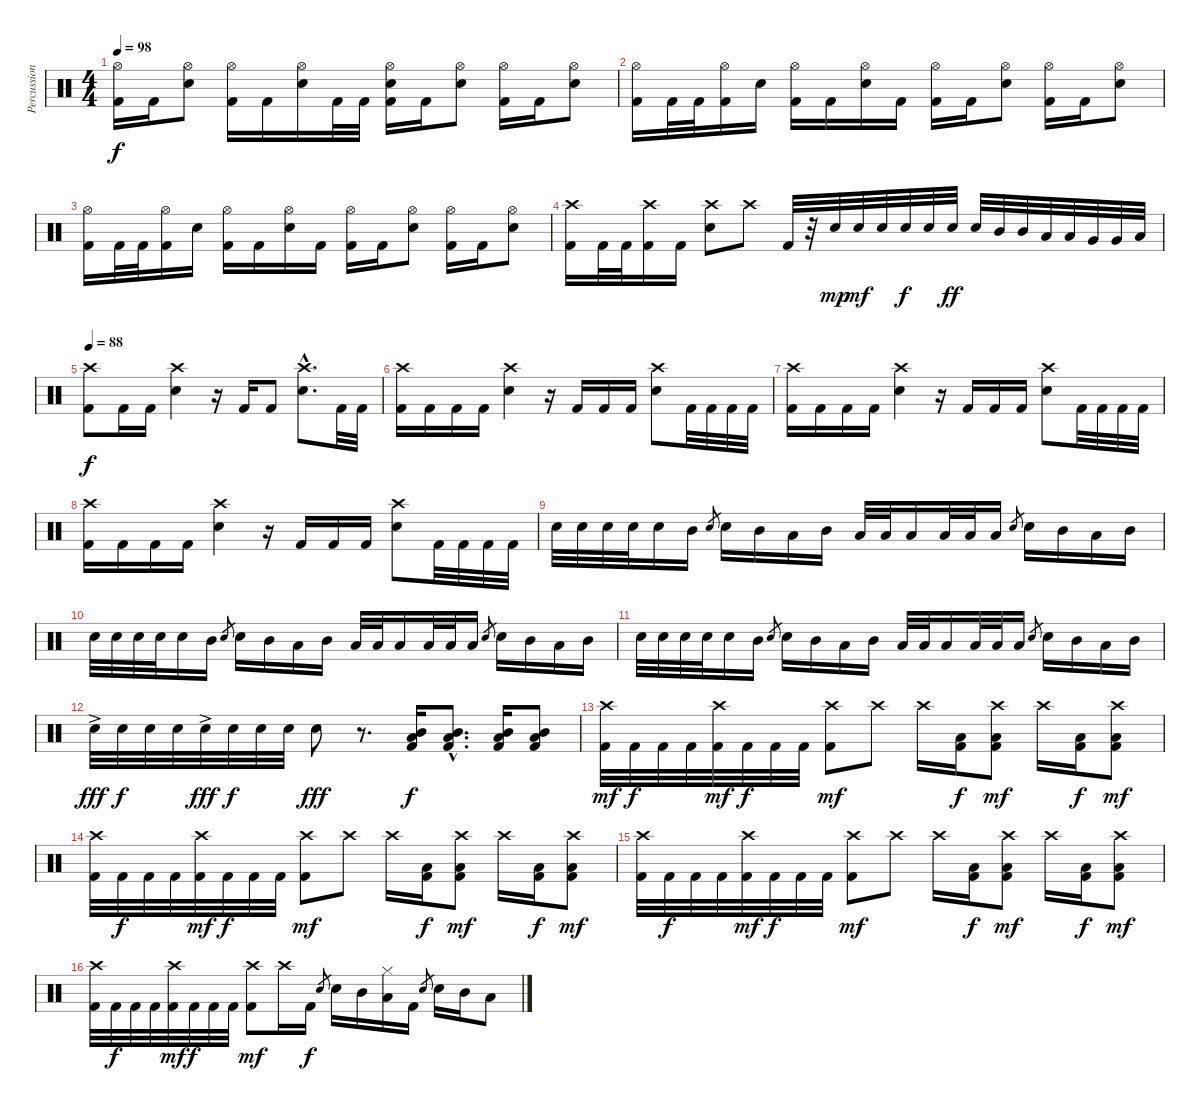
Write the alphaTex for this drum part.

\track ("Percussion" "Percussion") {instrument percussion}
\staff {score}
\articulation defaults
\ts (4 4)
\tempo 98
\clef neutral
\ks c
("Hi-Hat (open)" "Kick (hit) 2").16{dy f} "Kick (hit) 2".16 ("Hi-Hat (open)" "Electric Snare (hit)").8 ("Hi-Hat (open)" "Kick (hit) 2").16 "Kick (hit) 2".16 ("Hi-Hat (open)" "Electric Snare (hit)").16 "Kick (hit) 2".32 "Kick (hit) 2".32 ("Hi-Hat (open)" "Electric Snare (hit)" "Kick (hit) 2").16 "Kick (hit) 2".16 ("Hi-Hat (open)" "Electric Snare (hit)").8 ("Hi-Hat (open)" "Kick (hit) 2").16 "Kick (hit) 2".16 ("Hi-Hat (open)" "Electric Snare (hit)").8 |
("Hi-Hat (open)" "Kick (hit) 2").16 "Kick (hit) 2".32 "Kick (hit) 2".32 ("Hi-Hat (open)" "Kick (hit) 2").16 "Electric Snare (hit)".16 ("Hi-Hat (open)" "Kick (hit) 2").16 "Kick (hit) 2".16 ("Hi-Hat (open)" "Electric Snare (hit)").16 "Kick (hit) 2".16 ("Hi-Hat (open)" "Kick (hit) 2").16 "Kick (hit) 2".16 ("Hi-Hat (open)" "Electric Snare (hit)").8 ("Hi-Hat (open)" "Kick (hit) 2").16 "Kick (hit) 2".16 ("Hi-Hat (open)" "Electric Snare (hit)").8 |
("Hi-Hat (open)" "Kick (hit) 2").16 "Kick (hit) 2".32 "Kick (hit) 2".32 ("Hi-Hat (open)" "Kick (hit) 2").16 "Electric Snare (hit)".16 ("Hi-Hat (open)" "Kick (hit) 2").16 "Kick (hit) 2".16 ("Hi-Hat (open)" "Electric Snare (hit)").16 "Kick (hit) 2".16 ("Hi-Hat (open)" "Kick (hit) 2").16 "Kick (hit) 2".16 ("Hi-Hat (open)" "Electric Snare (hit)").8 ("Hi-Hat (open)" "Kick (hit) 2").16 "Kick (hit) 2".16 ("Hi-Hat (open)" "Electric Snare (hit)").8 |
("Crash high (hit)" "Kick (hit) 2").16 "Kick (hit) 2".32 "Kick (hit) 2".32 ("Crash high (hit)" "Kick (hit) 2").16 "Kick (hit) 2".16 ("Crash high (hit)" "Electric Snare (hit)").8 "Crash high (hit)".8 "Kick (hit) 2".32 r.32 "Electric Snare (hit)".32{dy mp} "Electric Snare (hit)".32{dy mf} "Electric Snare (hit)".32 "Electric Snare (hit)".32{dy f} "Electric Snare (hit)".32 "Electric Snare (hit)".32{dy ff} "Electric Snare (hit)".32 "Mid Tom (hit)".32 "Mid Tom (hit)".32 "Low Tom (hit)".32 "Low Tom (hit)".32 "Very Low Tom (hit)".32 "Very Low Tom (hit)".32 "Low Floor Tom (hit)".32 |
\tempo 88
("Crash high (hit)" "Kick (hit) 2").8{dy f} "Kick (hit) 2".16 "Kick (hit) 2".16 ("Crash high (hit)" "Electric Snare (hit)").4 r.16 "Kick (hit) 2".16 "Kick (hit) 2".8 ("Crash high (hit)"{hac} "Electric Snare (hit)"{hac}).8{d} "Kick (hit) 2".32 "Kick (hit) 2".32 |
("Crash high (hit)" "Kick (hit) 2").16 "Kick (hit) 2".16 "Kick (hit) 2".16 "Kick (hit) 2".16 ("Crash high (hit)" "Electric Snare (hit)").4 r.16 "Kick (hit) 2".16 "Kick (hit) 2".16 "Kick (hit) 2".16 ("Crash high (hit)" "Electric Snare (hit)").8 "Kick (hit) 2".32 "Kick (hit) 2".32 "Kick (hit) 2".32 "Kick (hit) 2".32 |
("Crash high (hit)" "Kick (hit) 2").16 "Kick (hit) 2".16 "Kick (hit) 2".16 "Kick (hit) 2".16 ("Crash high (hit)" "Electric Snare (hit)").4 r.16 "Kick (hit) 2".16 "Kick (hit) 2".16 "Kick (hit) 2".16 ("Crash high (hit)" "Electric Snare (hit)").8 "Kick (hit) 2".32 "Kick (hit) 2".32 "Kick (hit) 2".32 "Kick (hit) 2".32 |
("Crash high (hit)" "Kick (hit) 2").16 "Kick (hit) 2".16 "Kick (hit) 2".16 "Kick (hit) 2".16 ("Crash high (hit)" "Electric Snare (hit)").4 r.16 "Kick (hit) 2".16 "Kick (hit) 2".16 "Kick (hit) 2".16 ("Crash high (hit)" "Electric Snare (hit)").8 "Kick (hit) 2".32 "Kick (hit) 2".32 "Kick (hit) 2".32 "Kick (hit) 2".32 |
"Electric Snare (hit)".32 "Electric Snare (hit)".32 "Electric Snare (hit)".32 "Electric Snare (hit)".32 "Electric Snare (hit)".16 "Mid Tom (hit)".16 "Electric Snare (hit)".8{gr} "Electric Snare (hit)".16 "Mid Tom (hit)".16 "Low Tom (hit)".16 "Mid Tom (hit)".16 "Low Tom (hit)".32 "Low Tom (hit)".32 "Low Tom (hit)".16 "Low Tom (hit)".32 "Low Tom (hit)".32 "Low Tom (hit)".16 "Electric Snare (hit)".8{gr} "Electric Snare (hit)".16 "Mid Tom (hit)".16 "Low Tom (hit)".16 "Mid Tom (hit)".16 |
"Electric Snare (hit)".32 "Electric Snare (hit)".32 "Electric Snare (hit)".32 "Electric Snare (hit)".32 "Electric Snare (hit)".16 "Mid Tom (hit)".16 "Electric Snare (hit)".8{gr} "Electric Snare (hit)".16 "Mid Tom (hit)".16 "Low Tom (hit)".16 "Mid Tom (hit)".16 "Low Tom (hit)".32 "Low Tom (hit)".32 "Low Tom (hit)".16 "Low Tom (hit)".32 "Low Tom (hit)".32 "Low Tom (hit)".16 "Electric Snare (hit)".8{gr} "Electric Snare (hit)".16 "Mid Tom (hit)".16 "Low Tom (hit)".16 "Mid Tom (hit)".16 |
"Electric Snare (hit)".32 "Electric Snare (hit)".32 "Electric Snare (hit)".32 "Electric Snare (hit)".32 "Electric Snare (hit)".16 "Mid Tom (hit)".16 "Electric Snare (hit)".8{gr} "Electric Snare (hit)".16 "Mid Tom (hit)".16 "Low Tom (hit)".16 "Mid Tom (hit)".16 "Low Tom (hit)".32 "Low Tom (hit)".32 "Low Tom (hit)".16 "Low Tom (hit)".32 "Low Tom (hit)".32 "Low Tom (hit)".16 "Electric Snare (hit)".8{gr} "Electric Snare (hit)".16 "Mid Tom (hit)".16 "Low Tom (hit)".16 "Mid Tom (hit)".16 |
"Electric Snare (hit)"{ac}.32{dy fff} "Electric Snare (hit)".32{dy f} "Electric Snare (hit)".32 "Electric Snare (hit)".32 "Electric Snare (hit)"{ac}.32{dy fff} "Electric Snare (hit)".32{dy f} "Electric Snare (hit)".32 "Electric Snare (hit)".32 "Electric Snare (hit)".8{dy fff} r.8{d} ("Low Tom (hit)" "Mid Tom (hit)" "Kick (hit) 2").16{dy f} ("Low Tom (hit)"{hac} "Mid Tom (hit)"{hac} "Kick (hit) 2"{hac}).8{d} ("Low Tom (hit)" "Mid Tom (hit)" "Kick (hit) 2").16 ("Low Tom (hit)" "Mid Tom (hit)" "Kick (hit) 2").8 |
("Crash high (hit)" "Kick (hit) 2").32{dy mf} "Kick (hit) 2".32{dy f} "Kick (hit) 2".32 "Kick (hit) 2".32 ("Crash high (hit)" "Kick (hit) 2").32{dy mf} "Kick (hit) 2".32{dy f} "Kick (hit) 2".32 "Kick (hit) 2".32 ("Crash high (hit)" "Kick (hit) 2").8{dy mf} "Crash high (hit)".8 "Crash high (hit)".16 ("Low Tom (hit)" "Kick (hit) 2").16{dy f} ("Crash high (hit)" "Low Tom (hit)" "Kick (hit) 2").8{dy mf} "Crash high (hit)".16 ("Low Tom (hit)" "Kick (hit) 2").16{dy f} ("Crash high (hit)" "Low Tom (hit)" "Kick (hit) 2").8{dy mf} |
("Crash high (hit)" "Kick (hit) 2").32 "Kick (hit) 2".32{dy f} "Kick (hit) 2".32 "Kick (hit) 2".32 ("Crash high (hit)" "Kick (hit) 2").32{dy mf} "Kick (hit) 2".32{dy f} "Kick (hit) 2".32 "Kick (hit) 2".32 ("Crash high (hit)" "Kick (hit) 2").8{dy mf} "Crash high (hit)".8 "Crash high (hit)".16 ("Low Tom (hit)" "Kick (hit) 2").16{dy f} ("Crash high (hit)" "Low Tom (hit)" "Kick (hit) 2").8{dy mf} "Crash high (hit)".16 ("Low Tom (hit)" "Kick (hit) 2").16{dy f} ("Crash high (hit)" "Low Tom (hit)" "Kick (hit) 2").8{dy mf} |
("Crash high (hit)" "Kick (hit) 2").32 "Kick (hit) 2".32{dy f} "Kick (hit) 2".32 "Kick (hit) 2".32 ("Crash high (hit)" "Kick (hit) 2").32{dy mf} "Kick (hit) 2".32{dy f} "Kick (hit) 2".32 "Kick (hit) 2".32 ("Crash high (hit)" "Kick (hit) 2").8{dy mf} "Crash high (hit)".8 "Crash high (hit)".16 ("Low Tom (hit)" "Kick (hit) 2").16{dy f} ("Crash high (hit)" "Low Tom (hit)" "Kick (hit) 2").8{dy mf} "Crash high (hit)".16 ("Low Tom (hit)" "Kick (hit) 2").16{dy f} ("Crash high (hit)" "Low Tom (hit)" "Kick (hit) 2").8{dy mf} |
("Crash high (hit)" "Kick (hit) 2").32 "Kick (hit) 2".32{dy f} "Kick (hit) 2".32 "Kick (hit) 2".32 ("Crash high (hit)" "Kick (hit) 2").32{dy mf} "Kick (hit) 2".32{dy f} "Kick (hit) 2".32 "Kick (hit) 2".32 ("Crash high (hit)" "Kick (hit) 2").8{dy mf} "Crash high (hit)".16 "Kick (hit) 2".16{dy f} "Electric Snare (hit)".8{gr} "Electric Snare (hit)".16 "Mid Tom (hit)".16 ("Hi-Hat (closed)" "Low Tom (hit)").16 "Kick (hit) 2".16 "Electric Snare (hit)".8{gr} "Electric Snare (hit)".16 "Mid Tom (hit)".16 "Low Tom (hit)".8
